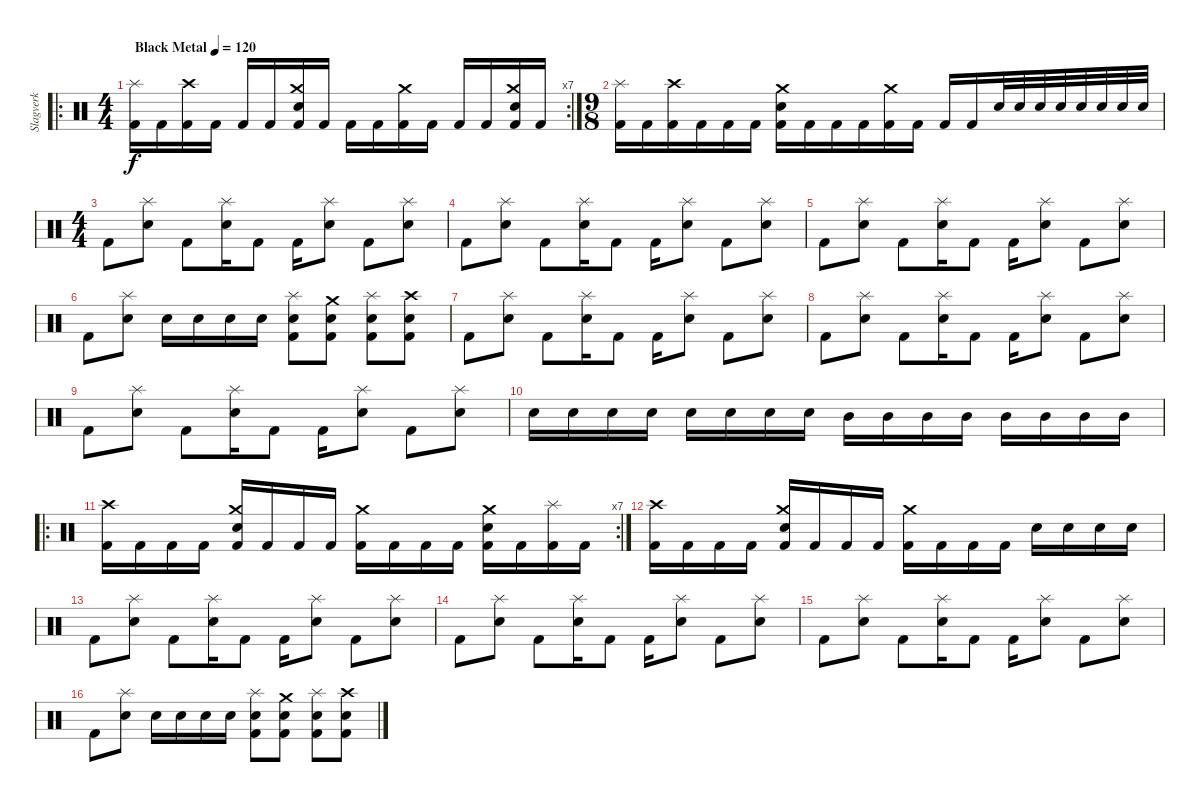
\track ("Slagverk" "Slagverk") {instrument percussion}
\staff {score}
\articulation defaults
\ro
\rc 7
\ts (4 4)
\tempo (120 "Black Metal")
\clef neutral
\ks c
("Splash (hit)" "Kick (hit) 2").16{dy f} "Kick (hit) 2".16 ("Crash high (hit)" "Kick (hit) 2").16 "Kick (hit) 2".16 "Kick (hit) 2".16 "Kick (hit) 2".16 ("Crash medium (hit)" "Electric Snare (hit)" "Kick (hit) 2").16 "Kick (hit) 2".16 "Kick (hit) 2".16 "Kick (hit) 2".16 ("Crash medium (hit)" "Kick (hit) 2").16 "Kick (hit) 2".16 "Kick (hit) 2".16 "Kick (hit) 2".16 ("Crash medium (hit)" "Electric Snare (hit)" "Kick (hit) 2").16 "Kick (hit) 2".16 |
\ts (9 8)
("Splash (hit)" "Kick (hit) 2").16 "Kick (hit) 2".16 ("Crash high (hit)" "Kick (hit) 2").16 "Kick (hit) 2".16 "Kick (hit) 2".16 "Kick (hit) 2".16 ("Crash medium (hit)" "Electric Snare (hit)" "Kick (hit) 2").16 "Kick (hit) 2".16 "Kick (hit) 2".16 "Kick (hit) 2".16 ("Crash medium (hit)" "Kick (hit) 2").16 "Kick (hit) 2".16 "Kick (hit) 2".16 "Kick (hit) 2".16 "Electric Snare (hit)".32 "Electric Snare (hit)".32 "Electric Snare (hit)".32 "Electric Snare (hit)".32 "Electric Snare (hit)".32 "Electric Snare (hit)".32 "Electric Snare (hit)".32 "Electric Snare (hit)".32 |
\ts (4 4)
"Kick (hit) 2".8 ("Splash (hit)" "Electric Snare (hit)").8 "Kick (hit) 2".8 ("Splash (hit)" "Electric Snare (hit)").16 "Kick (hit) 2".8 "Kick (hit) 2".16 ("Splash (hit)" "Electric Snare (hit)").8 "Kick (hit) 2".8 ("Splash (hit)" "Electric Snare (hit)").8 |
"Kick (hit) 2".8 ("Splash (hit)" "Electric Snare (hit)").8 "Kick (hit) 2".8 ("Splash (hit)" "Electric Snare (hit)").16 "Kick (hit) 2".8 "Kick (hit) 2".16 ("Splash (hit)" "Electric Snare (hit)").8 "Kick (hit) 2".8 ("Splash (hit)" "Electric Snare (hit)").8 |
"Kick (hit) 2".8 ("Splash (hit)" "Electric Snare (hit)").8 "Kick (hit) 2".8 ("Splash (hit)" "Electric Snare (hit)").16 "Kick (hit) 2".8 "Kick (hit) 2".16 ("Splash (hit)" "Electric Snare (hit)").8 "Kick (hit) 2".8 ("Splash (hit)" "Electric Snare (hit)").8 |
"Kick (hit) 2".8 ("Splash (hit)" "Electric Snare (hit)").8 "Electric Snare (hit)".16 "Electric Snare (hit)".16 "Electric Snare (hit)".16 "Electric Snare (hit)".16 ("Splash (hit)" "Electric Snare (hit)" "Kick (hit) 2").8 ("Crash medium (hit)" "Electric Snare (hit)" "Kick (hit) 2").8 ("Splash (hit)" "Electric Snare (hit)" "Kick (hit) 2").8 ("Crash high (hit)" "Electric Snare (hit)" "Kick (hit) 2").8 |
"Kick (hit) 2".8 ("Splash (hit)" "Electric Snare (hit)").8 "Kick (hit) 2".8 ("Splash (hit)" "Electric Snare (hit)").16 "Kick (hit) 2".8 "Kick (hit) 2".16 ("Splash (hit)" "Electric Snare (hit)").8 "Kick (hit) 2".8 ("Splash (hit)" "Electric Snare (hit)").8 |
"Kick (hit) 2".8 ("Splash (hit)" "Electric Snare (hit)").8 "Kick (hit) 2".8 ("Splash (hit)" "Electric Snare (hit)").16 "Kick (hit) 2".8 "Kick (hit) 2".16 ("Splash (hit)" "Electric Snare (hit)").8 "Kick (hit) 2".8 ("Splash (hit)" "Electric Snare (hit)").8 |
"Kick (hit) 2".8 ("Splash (hit)" "Electric Snare (hit)").8 "Kick (hit) 2".8 ("Splash (hit)" "Electric Snare (hit)").16 "Kick (hit) 2".8 "Kick (hit) 2".16 ("Splash (hit)" "Electric Snare (hit)").8 "Kick (hit) 2".8 ("Splash (hit)" "Electric Snare (hit)").8 |
"Electric Snare (hit)".16 "Electric Snare (hit)".16 "Electric Snare (hit)".16 "Electric Snare (hit)".16 "Electric Snare (hit)".16 "Electric Snare (hit)".16 "Electric Snare (hit)".16 "Electric Snare (hit)".16 "Mid Tom (hit)".16 "Mid Tom (hit)".16 "Mid Tom (hit)".16 "Mid Tom (hit)".16 "Mid Tom (hit)".16 "Mid Tom (hit)".16 "Mid Tom (hit)".16 "Mid Tom (hit)".16 |
\ro
\rc 7
("Crash high (hit)" "Kick (hit) 2").16 "Kick (hit) 2".16 "Kick (hit) 2".16 "Kick (hit) 2".16 ("Crash medium (hit)" "Electric Snare (hit)" "Kick (hit) 2").16 "Kick (hit) 2".16 "Kick (hit) 2".16 "Kick (hit) 2".16 ("Crash medium (hit)" "Kick (hit) 2").16 "Kick (hit) 2".16 "Kick (hit) 2".16 "Kick (hit) 2".16 ("Crash medium (hit)" "Electric Snare (hit)" "Kick (hit) 2").16 "Kick (hit) 2".16 ("Splash (hit)" "Kick (hit) 2").16 "Kick (hit) 2".16 |
("Crash high (hit)" "Kick (hit) 2").16 "Kick (hit) 2".16 "Kick (hit) 2".16 "Kick (hit) 2".16 ("Crash medium (hit)" "Electric Snare (hit)" "Kick (hit) 2").16 "Kick (hit) 2".16 "Kick (hit) 2".16 "Kick (hit) 2".16 ("Crash medium (hit)" "Kick (hit) 2").16 "Kick (hit) 2".16 "Kick (hit) 2".16 "Kick (hit) 2".16 "Electric Snare (hit)".16 "Electric Snare (hit)".16 "Electric Snare (hit)".16 "Electric Snare (hit)".16 |
"Kick (hit) 2".8 ("Splash (hit)" "Electric Snare (hit)").8 "Kick (hit) 2".8 ("Splash (hit)" "Electric Snare (hit)").16 "Kick (hit) 2".8 "Kick (hit) 2".16 ("Splash (hit)" "Electric Snare (hit)").8 "Kick (hit) 2".8 ("Splash (hit)" "Electric Snare (hit)").8 |
"Kick (hit) 2".8 ("Splash (hit)" "Electric Snare (hit)").8 "Kick (hit) 2".8 ("Splash (hit)" "Electric Snare (hit)").16 "Kick (hit) 2".8 "Kick (hit) 2".16 ("Splash (hit)" "Electric Snare (hit)").8 "Kick (hit) 2".8 ("Splash (hit)" "Electric Snare (hit)").8 |
"Kick (hit) 2".8 ("Splash (hit)" "Electric Snare (hit)").8 "Kick (hit) 2".8 ("Splash (hit)" "Electric Snare (hit)").16 "Kick (hit) 2".8 "Kick (hit) 2".16 ("Splash (hit)" "Electric Snare (hit)").8 "Kick (hit) 2".8 ("Splash (hit)" "Electric Snare (hit)").8 |
"Kick (hit) 2".8 ("Splash (hit)" "Electric Snare (hit)").8 "Electric Snare (hit)".16 "Electric Snare (hit)".16 "Electric Snare (hit)".16 "Electric Snare (hit)".16 ("Splash (hit)" "Electric Snare (hit)" "Kick (hit) 2").8 ("Crash medium (hit)" "Electric Snare (hit)" "Kick (hit) 2").8 ("Splash (hit)" "Electric Snare (hit)" "Kick (hit) 2").8 ("Crash high (hit)" "Electric Snare (hit)" "Kick (hit) 2").8
